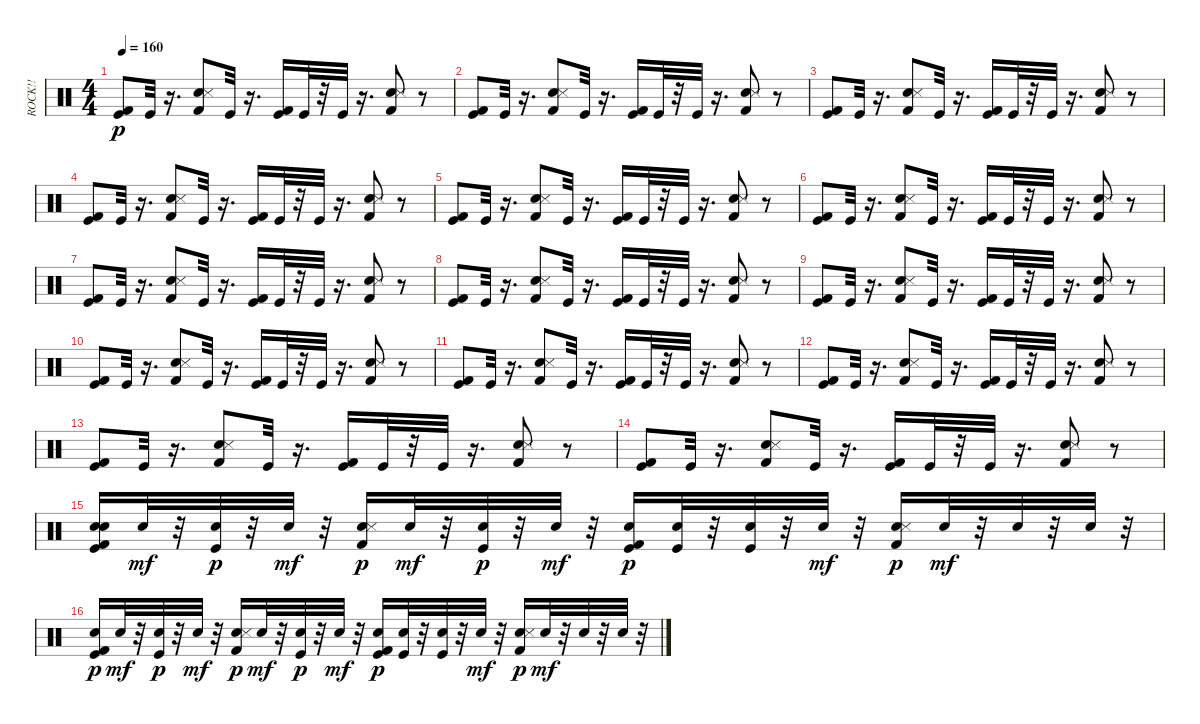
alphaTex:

\track ("ROCK!!" "ROCK!!") {instrument percussion}
\staff {score}
\articulation defaults
\ts (4 4)
\tempo 160
\clef neutral
\ks c
("Kick (hit) 2" "Kick (hit)").8{dy p} "Kick (hit)".32 r.16{d} ("Kick (hit) 2" "Electric Snare (hit)" "Snare (side stick) 3").8 "Kick (hit)".32 r.16{d} ("Kick (hit) 2" "Kick (hit)").16 "Kick (hit)".32 r.32 "Kick (hit)".32 r.16{d} ("Kick (hit) 2" "Electric Snare (hit)" "Snare (side stick) 3").8 r.8 |
("Kick (hit) 2" "Kick (hit)").8 "Kick (hit)".32 r.16{d} ("Kick (hit) 2" "Electric Snare (hit)" "Snare (side stick) 3").8 "Kick (hit)".32 r.16{d} ("Kick (hit) 2" "Kick (hit)").16 "Kick (hit)".32 r.32 "Kick (hit)".32 r.16{d} ("Kick (hit) 2" "Electric Snare (hit)" "Snare (side stick) 3").8 r.8 |
("Kick (hit) 2" "Kick (hit)").8 "Kick (hit)".32 r.16{d} ("Kick (hit) 2" "Electric Snare (hit)" "Snare (side stick) 3").8 "Kick (hit)".32 r.16{d} ("Kick (hit) 2" "Kick (hit)").16 "Kick (hit)".32 r.32 "Kick (hit)".32 r.16{d} ("Kick (hit) 2" "Electric Snare (hit)" "Snare (side stick) 3").8 r.8 |
("Kick (hit) 2" "Kick (hit)").8 "Kick (hit)".32 r.16{d} ("Kick (hit) 2" "Electric Snare (hit)" "Snare (side stick) 3").8 "Kick (hit)".32 r.16{d} ("Kick (hit) 2" "Kick (hit)").16 "Kick (hit)".32 r.32 "Kick (hit)".32 r.16{d} ("Kick (hit) 2" "Electric Snare (hit)" "Snare (side stick) 3").8 r.8 |
("Kick (hit) 2" "Kick (hit)").8 "Kick (hit)".32 r.16{d} ("Kick (hit) 2" "Electric Snare (hit)" "Snare (side stick) 3").8 "Kick (hit)".32 r.16{d} ("Kick (hit) 2" "Kick (hit)").16 "Kick (hit)".32 r.32 "Kick (hit)".32 r.16{d} ("Kick (hit) 2" "Electric Snare (hit)" "Snare (side stick) 3").8 r.8 |
("Kick (hit) 2" "Kick (hit)").8 "Kick (hit)".32 r.16{d} ("Kick (hit) 2" "Electric Snare (hit)" "Snare (side stick) 3").8 "Kick (hit)".32 r.16{d} ("Kick (hit) 2" "Kick (hit)").16 "Kick (hit)".32 r.32 "Kick (hit)".32 r.16{d} ("Kick (hit) 2" "Electric Snare (hit)" "Snare (side stick) 3").8 r.8 |
("Kick (hit) 2" "Kick (hit)").8 "Kick (hit)".32 r.16{d} ("Kick (hit) 2" "Electric Snare (hit)" "Snare (side stick) 3").8 "Kick (hit)".32 r.16{d} ("Kick (hit) 2" "Kick (hit)").16 "Kick (hit)".32 r.32 "Kick (hit)".32 r.16{d} ("Kick (hit) 2" "Electric Snare (hit)" "Snare (side stick) 3").8 r.8 |
("Kick (hit) 2" "Kick (hit)").8 "Kick (hit)".32 r.16{d} ("Kick (hit) 2" "Electric Snare (hit)" "Snare (side stick) 3").8 "Kick (hit)".32 r.16{d} ("Kick (hit) 2" "Kick (hit)").16 "Kick (hit)".32 r.32 "Kick (hit)".32 r.16{d} ("Kick (hit) 2" "Electric Snare (hit)" "Snare (side stick) 3").8 r.8 |
("Kick (hit) 2" "Kick (hit)").8 "Kick (hit)".32 r.16{d} ("Kick (hit) 2" "Electric Snare (hit)" "Snare (side stick) 3").8 "Kick (hit)".32 r.16{d} ("Kick (hit) 2" "Kick (hit)").16 "Kick (hit)".32 r.32 "Kick (hit)".32 r.16{d} ("Kick (hit) 2" "Electric Snare (hit)" "Snare (side stick) 3").8 r.8 |
("Kick (hit) 2" "Kick (hit)").8 "Kick (hit)".32 r.16{d} ("Kick (hit) 2" "Electric Snare (hit)" "Snare (side stick) 3").8 "Kick (hit)".32 r.16{d} ("Kick (hit) 2" "Kick (hit)").16 "Kick (hit)".32 r.32 "Kick (hit)".32 r.16{d} ("Kick (hit) 2" "Electric Snare (hit)" "Snare (side stick) 3").8 r.8 |
("Kick (hit) 2" "Kick (hit)").8 "Kick (hit)".32 r.16{d} ("Kick (hit) 2" "Electric Snare (hit)" "Snare (side stick) 3").8 "Kick (hit)".32 r.16{d} ("Kick (hit) 2" "Kick (hit)").16 "Kick (hit)".32 r.32 "Kick (hit)".32 r.16{d} ("Kick (hit) 2" "Electric Snare (hit)" "Snare (side stick) 3").8 r.8 |
("Kick (hit) 2" "Kick (hit)").8 "Kick (hit)".32 r.16{d} ("Kick (hit) 2" "Electric Snare (hit)" "Snare (side stick) 3").8 "Kick (hit)".32 r.16{d} ("Kick (hit) 2" "Kick (hit)").16 "Kick (hit)".32 r.32 "Kick (hit)".32 r.16{d} ("Kick (hit) 2" "Electric Snare (hit)" "Snare (side stick) 3").8 r.8 |
("Kick (hit) 2" "Kick (hit)").8 "Kick (hit)".32 r.16{d} ("Kick (hit) 2" "Electric Snare (hit)" "Snare (side stick) 3").8 "Kick (hit)".32 r.16{d} ("Kick (hit) 2" "Kick (hit)").16 "Kick (hit)".32 r.32 "Kick (hit)".32 r.16{d} ("Kick (hit) 2" "Electric Snare (hit)" "Snare (side stick) 3").8 r.8 |
("Kick (hit) 2" "Kick (hit)").8 "Kick (hit)".32 r.16{d} ("Kick (hit) 2" "Electric Snare (hit)" "Snare (side stick) 3").8 "Kick (hit)".32 r.16{d} ("Kick (hit) 2" "Kick (hit)").16 "Kick (hit)".32 r.32 "Kick (hit)".32 r.16{d} ("Kick (hit) 2" "Electric Snare (hit)" "Snare (side stick) 3").8 r.8 |
("Kick (hit) 2" "Electric Snare (hit)" "Electric Snare (hit)" "Kick (hit)").16 "Electric Snare (hit)".32{dy mf} r.32 ("Electric Snare (hit)" "Kick (hit)").32{dy p} r.32 "Electric Snare (hit)".32{dy mf} r.32 ("Kick (hit) 2" "Electric Snare (hit)" "Snare (side stick) 3").16{dy p} "Electric Snare (hit)".32{dy mf} r.32 ("Electric Snare (hit)" "Kick (hit)").32{dy p} r.32 "Electric Snare (hit)".32{dy mf} r.32 ("Kick (hit) 2" "Electric Snare (hit)" "Kick (hit)").16{dy p} ("Electric Snare (hit)" "Kick (hit)").32 r.32 ("Electric Snare (hit)" "Kick (hit)").32 r.32 "Electric Snare (hit)".32{dy mf} r.32 ("Kick (hit) 2" "Electric Snare (hit)" "Snare (side stick) 3").16{dy p} "Electric Snare (hit)".32{dy mf} r.32 "Electric Snare (hit)".32 r.32 "Electric Snare (hit)".32 r.32 |
("Kick (hit) 2" "Electric Snare (hit)" "Kick (hit)").16{dy p} "Electric Snare (hit)".32{dy mf} r.32 ("Electric Snare (hit)" "Kick (hit)").32{dy p} r.32 "Electric Snare (hit)".32{dy mf} r.32 ("Kick (hit) 2" "Electric Snare (hit)" "Snare (side stick) 3").16{dy p} "Electric Snare (hit)".32{dy mf} r.32 ("Electric Snare (hit)" "Kick (hit)").32{dy p} r.32 "Electric Snare (hit)".32{dy mf} r.32 ("Kick (hit) 2" "Electric Snare (hit)" "Kick (hit)").16{dy p} ("Electric Snare (hit)" "Kick (hit)").32 r.32 ("Electric Snare (hit)" "Kick (hit)").32 r.32 "Electric Snare (hit)".32{dy mf} r.32 ("Kick (hit) 2" "Electric Snare (hit)" "Snare (side stick) 3").16{dy p} "Electric Snare (hit)".32{dy mf} r.32 "Electric Snare (hit)".32 r.32 "Electric Snare (hit)".32 r.32
